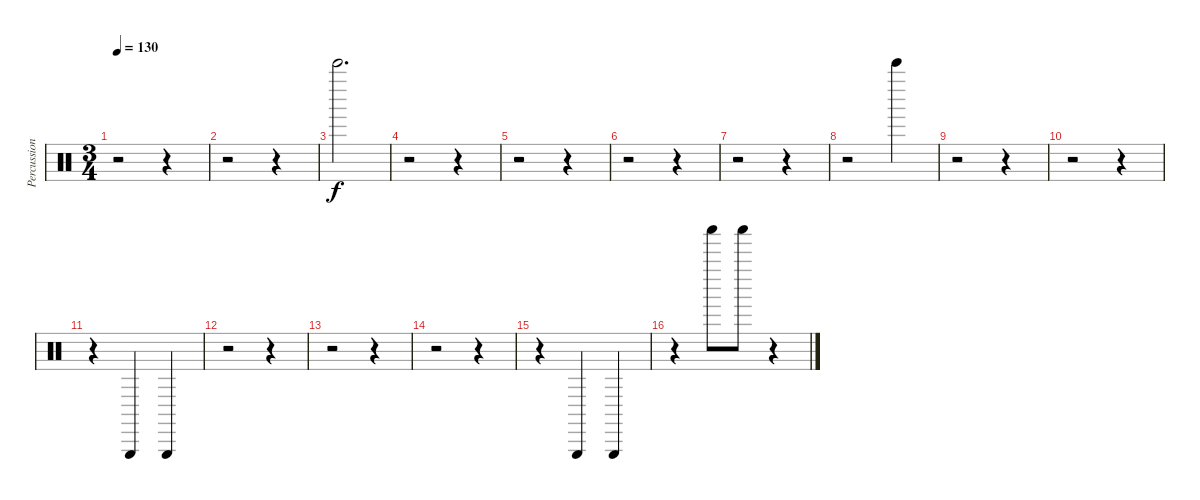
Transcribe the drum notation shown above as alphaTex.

\track ("Percussion" "Percussion") {instrument percussion}
\staff {score}
\articulation defaults
\ts (3 4)
\tempo 130
\clef neutral
\ks c
r.2{dy f} r.4 |
r.2 r.4 |
"Bell Tree (hit)".2{d} |
r.2 r.4 |
r.2 r.4 |
r.2 r.4 |
r.2 r.4 |
r.2 "Bell Tree (hit)".4 |
r.2 r.4 |
r.2 r.4 |
r.4 "Triangle (hit)".4 "Triangle (hit)".4 |
r.2 r.4 |
r.2 r.4 |
r.2 r.4 |
r.4 "Triangle (hit)".4 "Triangle (hit)".4 |
r.4 "Shaker (hit)".8 "Shaker (hit)".8 r.4
